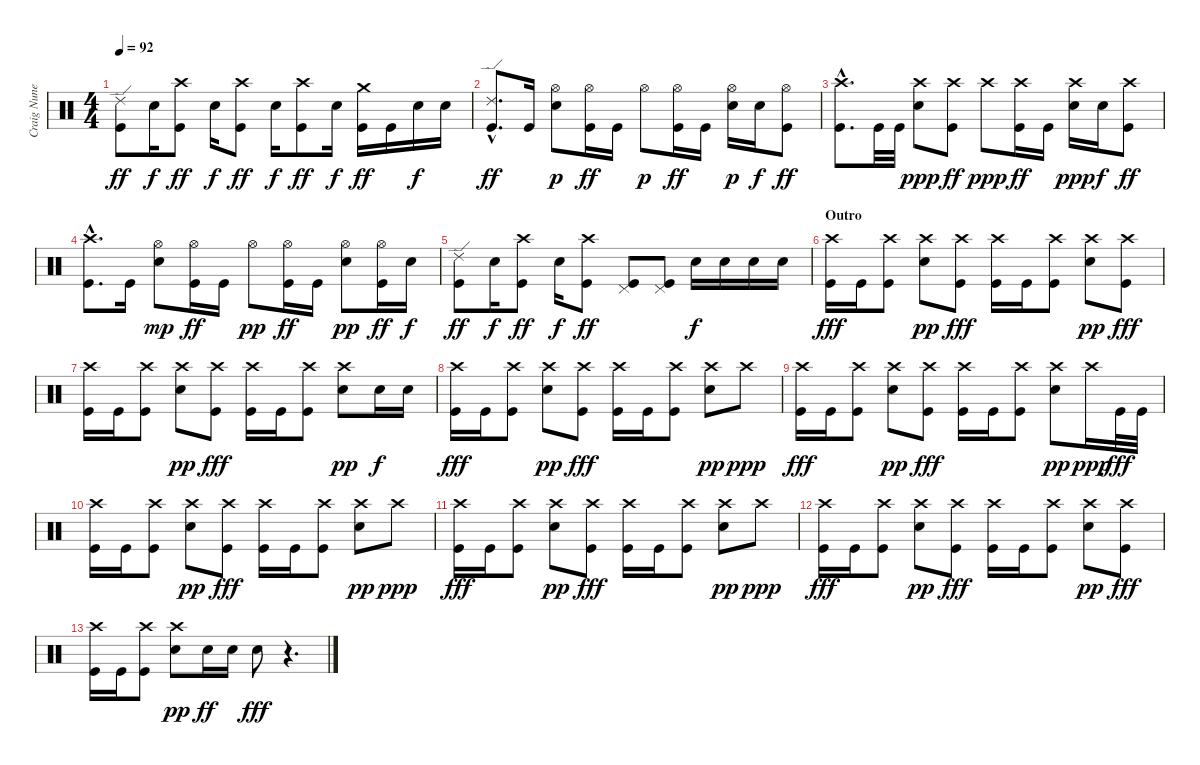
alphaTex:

\track ("Craig Nunenmacher" "Craig Nune") {instrument percussion}
\staff {score}
\articulation defaults
\ts (4 4)
\tempo 92
\clef neutral
\ks c
("Ride (edge) 2" "Kick (hit)").8{dy ff} "Snare (hit) 2".16{dy f} ("Crash high (hit)" "Kick (hit)").8{dy ff} "Snare (hit) 2".16{dy f} ("Crash high (hit)" "Kick (hit)").8{dy ff} "Snare (hit) 2".16{dy f} ("Crash high (hit)" "Kick (hit)").8{dy ff} "Snare (hit) 2".16{dy f} ("Crash medium (hit)" "Kick (hit)").16{dy ff} "Kick (hit)".16 "Snare (hit) 2".16{dy f} "Snare (hit) 2".16 |
("Ride (edge) 2"{hac} "Kick (hit)"{hac}).8{d dy ff} "Kick (hit)".16 ("Hi-Hat (open)" "Snare (hit) 2").8{dy p} ("Hi-Hat (open)" "Kick (hit)").16{dy ff} "Kick (hit)".16 "Hi-Hat (open)".8{dy p} ("Hi-Hat (open)" "Kick (hit)").16{dy ff} "Kick (hit)".16 ("Hi-Hat (open)" "Snare (hit) 2").16{dy p} "Snare (hit) 2".16{dy f} ("Hi-Hat (open)" "Kick (hit)").8{dy ff} |
("Crash high (hit)"{hac} "Kick (hit)"{hac}).8{d} "Kick (hit)".32 "Kick (hit)".32 ("Crash high (hit)" "Snare (hit) 2").8{dy ppp} ("Crash high (hit)" "Kick (hit)").8{dy ff} "Crash high (hit)".8{dy ppp} ("Crash high (hit)" "Kick (hit)").16{dy ff} "Kick (hit)".16 ("Crash high (hit)" "Snare (hit) 2").16{dy ppp} "Snare (hit) 2".16{dy f} ("Crash high (hit)" "Kick (hit)").8{dy ff} |
("Crash high (hit)"{hac} "Kick (hit)"{hac}).8{d} "Kick (hit)".16 ("Hi-Hat (open)" "Snare (hit) 2").8{dy mp} ("Hi-Hat (open)" "Kick (hit)").16{dy ff} "Kick (hit)".16 "Hi-Hat (open)".8{dy pp} ("Hi-Hat (open)" "Kick (hit)").16{dy ff} "Kick (hit)".16 ("Hi-Hat (open)" "Snare (hit) 2").8{dy pp} ("Hi-Hat (open)" "Kick (hit)").16{dy ff} "Snare (hit) 2".16{dy f} |
("Ride (edge) 2" "Kick (hit)").8{dy ff} "Snare (hit) 2".16{dy f} ("Crash high (hit)" "Kick (hit)").8{dy ff} "Snare (hit) 2".16{dy f} ("Crash high (hit)" "Kick (hit)").8{dy ff} ("Pedal Hi-Hat (hit)" "Kick (hit)").8 ("Pedal Hi-Hat (hit)" "Kick (hit)").8 "Snare (hit) 2".16{dy f} "Snare (hit) 2".16 "Snare (hit) 2".16 "Snare (hit) 2".16 |
\section ("" "Outro")
("Crash high (hit)" "Kick (hit)").16{dy fff} "Kick (hit)".16 ("Crash high (hit)" "Kick (hit)").8 ("Crash high (hit)" "Snare (hit) 2").8{dy pp} ("Crash high (hit)" "Kick (hit)").8{dy fff} ("Crash high (hit)" "Kick (hit)").16 "Kick (hit)".16 ("Crash high (hit)" "Kick (hit)").8 ("Crash high (hit)" "Snare (hit) 2").8{dy pp} ("Crash high (hit)" "Kick (hit)").8{dy fff} |
("Crash high (hit)" "Kick (hit)").16 "Kick (hit)".16 ("Crash high (hit)" "Kick (hit)").8 ("Crash high (hit)" "Snare (hit) 2").8{dy pp} ("Crash high (hit)" "Kick (hit)").8{dy fff} ("Crash high (hit)" "Kick (hit)").16 "Kick (hit)".16 ("Crash high (hit)" "Kick (hit)").8 ("Crash high (hit)" "Snare (hit) 2").8{dy pp} "Snare (hit) 2".16{dy f} "Snare (hit) 2".16 |
("Crash high (hit)" "Kick (hit)").16{dy fff} "Kick (hit)".16 ("Crash high (hit)" "Kick (hit)").8 ("Crash high (hit)" "Snare (hit) 2").8{dy pp} ("Crash high (hit)" "Kick (hit)").8{dy fff} ("Crash high (hit)" "Kick (hit)").16 "Kick (hit)".16 ("Crash high (hit)" "Kick (hit)").8 ("Crash high (hit)" "Snare (hit) 2").8{dy pp} "Crash high (hit)".8{dy ppp} |
("Crash high (hit)" "Kick (hit)").16{dy fff} "Kick (hit)".16 ("Crash high (hit)" "Kick (hit)").8 ("Crash high (hit)" "Snare (hit) 2").8{dy pp} ("Crash high (hit)" "Kick (hit)").8{dy fff} ("Crash high (hit)" "Kick (hit)").16 "Kick (hit)".16 ("Crash high (hit)" "Kick (hit)").8 ("Crash high (hit)" "Snare (hit) 2").8{dy pp} "Crash high (hit)".16{dy ppp} "Kick (hit)".32{dy fff} "Kick (hit)".32 |
("Crash high (hit)" "Kick (hit)").16 "Kick (hit)".16 ("Crash high (hit)" "Kick (hit)").8 ("Crash high (hit)" "Snare (hit) 2").8{dy pp} ("Crash high (hit)" "Kick (hit)").8{dy fff} ("Crash high (hit)" "Kick (hit)").16 "Kick (hit)".16 ("Crash high (hit)" "Kick (hit)").8 ("Crash high (hit)" "Snare (hit) 2").8{dy pp} "Crash high (hit)".8{dy ppp} |
("Crash high (hit)" "Kick (hit)").16{dy fff} "Kick (hit)".16 ("Crash high (hit)" "Kick (hit)").8 ("Crash high (hit)" "Snare (hit) 2").8{dy pp} ("Crash high (hit)" "Kick (hit)").8{dy fff} ("Crash high (hit)" "Kick (hit)").16 "Kick (hit)".16 ("Crash high (hit)" "Kick (hit)").8 ("Crash high (hit)" "Snare (hit) 2").8{dy pp} "Crash high (hit)".8{dy ppp} |
("Crash high (hit)" "Kick (hit)").16{dy fff} "Kick (hit)".16 ("Crash high (hit)" "Kick (hit)").8 ("Crash high (hit)" "Snare (hit) 2").8{dy pp} ("Crash high (hit)" "Kick (hit)").8{dy fff} ("Crash high (hit)" "Kick (hit)").16 "Kick (hit)".16 ("Crash high (hit)" "Kick (hit)").8 ("Crash high (hit)" "Snare (hit) 2").8{dy pp} ("Crash high (hit)" "Kick (hit)").8{dy fff} |
("Crash high (hit)" "Kick (hit)").16 "Kick (hit)".16 ("Crash high (hit)" "Kick (hit)").8 ("Crash high (hit)" "Snare (hit) 2").8{dy pp} "Snare (hit) 2".16{dy ff} "Snare (hit) 2".16 "Snare (hit) 2".8{dy fff} r.4{d}
